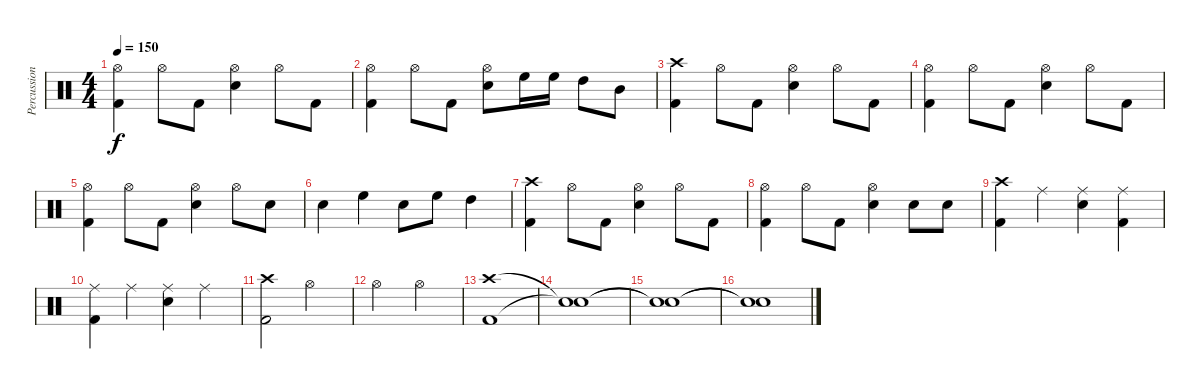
\track ("Percussion" "Percussion") {instrument percussion}
\staff {score}
\articulation defaults
\ts (4 4)
\tempo 150
\clef neutral
\ks c
("Hi-Hat (open)" "Kick (hit) 2").4{dy f} "Hi-Hat (open)".8 "Kick (hit) 2".8 ("Hi-Hat (open)" "Electric Snare (hit)").4 "Hi-Hat (open)".8 "Kick (hit) 2".8 |
("Hi-Hat (open)" "Kick (hit) 2").4 "Hi-Hat (open)".8 "Kick (hit) 2".8 ("Hi-Hat (open)" "Electric Snare (hit)").8 "High Floor Tom (hit)".16 "High Floor Tom (hit)".16 "High Tom (hit)".8 "Mid Tom (hit)".8 |
("Crash high (hit)" "Kick (hit) 2").4 "Hi-Hat (open)".8 "Kick (hit) 2".8 ("Hi-Hat (open)" "Electric Snare (hit)").4 "Hi-Hat (open)".8 "Kick (hit) 2".8 |
("Hi-Hat (open)" "Kick (hit) 2").4 "Hi-Hat (open)".8 "Kick (hit) 2".8 ("Hi-Hat (open)" "Electric Snare (hit)").4 "Hi-Hat (open)".8 "Kick (hit) 2".8 |
("Hi-Hat (open)" "Kick (hit) 2").4 "Hi-Hat (open)".8 "Kick (hit) 2".8 ("Hi-Hat (open)" "Electric Snare (hit)").4 "Hi-Hat (open)".8 "Electric Snare (hit)".8 |
"Electric Snare (hit)".4 "High Floor Tom (hit)".4 "Electric Snare (hit)".8 "High Floor Tom (hit)".8 "High Tom (hit)".4 |
("Crash high (hit)" "Kick (hit) 2").4 "Hi-Hat (open)".8 "Kick (hit) 2".8 ("Hi-Hat (open)" "Electric Snare (hit)").4 "Hi-Hat (open)".8 "Kick (hit) 2".8 |
("Hi-Hat (open)" "Kick (hit) 2").4 "Hi-Hat (open)".8 "Kick (hit) 2".8 ("Hi-Hat (open)" "Electric Snare (hit)").4 "Electric Snare (hit)".8 "Electric Snare (hit)".8 |
("Crash high (hit)" "Kick (hit) 2").4 "Ride (middle)".4 ("Ride (middle)" "Electric Snare (hit)").4 ("Ride (middle)" "Kick (hit) 2").4 |
("Ride (middle)" "Kick (hit) 2").4 "Ride (middle)".4 ("Ride (middle)" "Electric Snare (hit)").4 "Ride (middle)".4 |
("Crash high (hit)" "Kick (hit) 2").2 "Hi-Hat (open)".2 |
"Hi-Hat (open)".2 "Hi-Hat (open)".2 |
("Crash high (hit)" "Kick (hit) 2").1 |
("Snare (hit)"{t} "Snare (hit)"{t}).1 |
("Snare (hit)"{t} "Snare (hit)"{t}).1 |
("Snare (hit)"{t} "Snare (hit)"{t}).1
